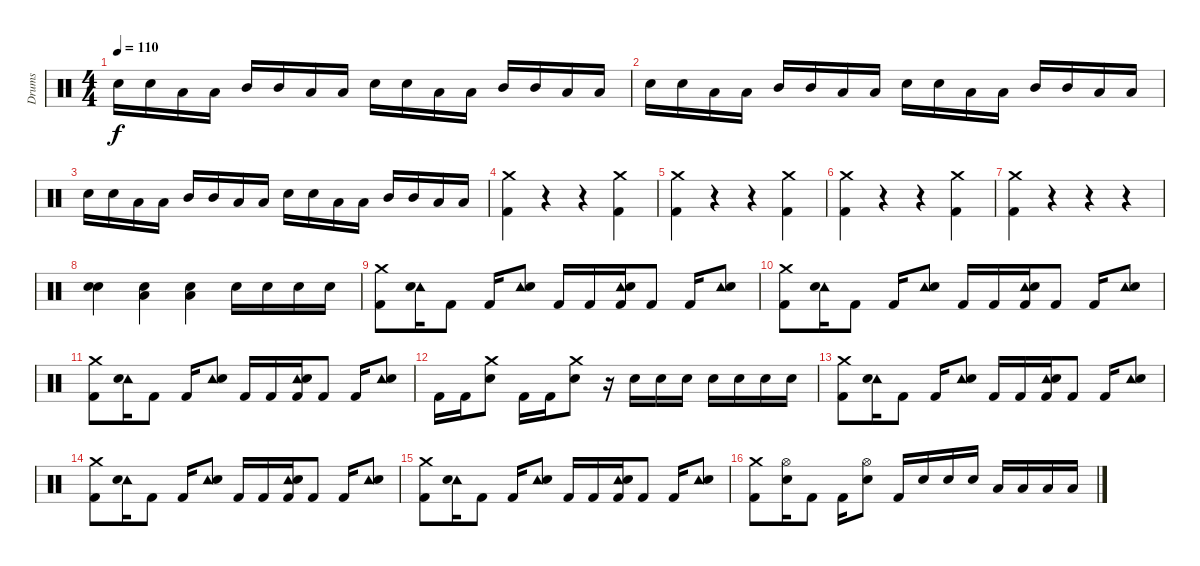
\track ("Drums" "Drums") {instrument percussion}
\staff {score}
\articulation defaults
\ts (4 4)
\tempo 110
\clef neutral
\ks c "Electric Snare (hit)".16{dy f} "Electric Snare (hit)".16 "Low Tom (hit)".16 "Low Tom (hit)".16 "Mid Tom (hit)".16 "Mid Tom (hit)".16 "Low Tom (hit)".16 "Low Tom (hit)".16 "Electric Snare (hit)".16 "Electric Snare (hit)".16 "Low Tom (hit)".16 "Low Tom (hit)".16 "Mid Tom (hit)".16 "Mid Tom (hit)".16 "Low Tom (hit)".16 "Low Tom (hit)".16
|
"Electric Snare (hit)".16 "Electric Snare (hit)".16 "Low Tom (hit)".16 "Low Tom (hit)".16 "Mid Tom (hit)".16 "Mid Tom (hit)".16 "Low Tom (hit)".16 "Low Tom (hit)".16 "Electric Snare (hit)".16 "Electric Snare (hit)".16 "Low Tom (hit)".16 "Low Tom (hit)".16 "Mid Tom (hit)".16 "Mid Tom (hit)".16 "Low Tom (hit)".16 "Low Tom (hit)".16 |
"Electric Snare (hit)".16 "Electric Snare (hit)".16 "Low Tom (hit)".16 "Low Tom (hit)".16 "Mid Tom (hit)".16 "Mid Tom (hit)".16 "Low Tom (hit)".16 "Low Tom (hit)".16 "Electric Snare (hit)".16 "Electric Snare (hit)".16 "Low Tom (hit)".16 "Low Tom (hit)".16 "Mid Tom (hit)".16 "Mid Tom (hit)".16 "Low Tom (hit)".16 "Low Tom (hit)".16 |
("Crash medium (hit)" "Kick (hit) 2").4 r.4 r.4 ("Crash medium (hit)" "Kick (hit) 2").4 |
("Crash medium (hit)" "Kick (hit) 2").4 r.4 r.4 ("Crash medium (hit)" "Kick (hit) 2").4 |
("Crash medium (hit)" "Kick (hit) 2").4 r.4 r.4 ("Crash medium (hit)" "Kick (hit) 2").4 |
("Crash medium (hit)" "Kick (hit) 2").4 r.4 r.4 r.4 |
("Electric Snare (hit)" "Snare (hit) 2").4{volume 16} ("Snare (hit) 2" "Low Floor Tom (hit)").4 ("Snare (hit) 2" "Low Floor Tom (hit)").4 "Snare (hit) 2".16 "Snare (hit) 2".16 "Snare (hit) 2".16 "Snare (hit) 2".16 |
("Crash medium (hit)" "Kick (hit) 2").8 ("Tambourine (hit)" "Electric Snare (hit)").16 "Kick (hit) 2".8 "Kick (hit) 2".16 ("Tambourine (hit)" "Electric Snare (hit)").8 "Kick (hit) 2".16 "Kick (hit) 2".16 ("Tambourine (hit)" "Electric Snare (hit)" "Kick (hit) 2").16 "Kick (hit) 2".8 "Kick (hit) 2".16 ("Tambourine (hit)" "Electric Snare (hit)").8 |
("Crash medium (hit)" "Kick (hit) 2").8 ("Tambourine (hit)" "Electric Snare (hit)").16 "Kick (hit) 2".8 "Kick (hit) 2".16 ("Tambourine (hit)" "Electric Snare (hit)").8 "Kick (hit) 2".16 "Kick (hit) 2".16 ("Tambourine (hit)" "Electric Snare (hit)" "Kick (hit) 2").16 "Kick (hit) 2".8 "Kick (hit) 2".16 ("Tambourine (hit)" "Electric Snare (hit)").8 |
("Crash medium (hit)" "Kick (hit) 2").8 ("Tambourine (hit)" "Electric Snare (hit)").16 "Kick (hit) 2".8 "Kick (hit) 2".16 ("Tambourine (hit)" "Electric Snare (hit)").8 "Kick (hit) 2".16 "Kick (hit) 2".16 ("Tambourine (hit)" "Electric Snare (hit)" "Kick (hit) 2").16 "Kick (hit) 2".8 "Kick (hit) 2".16 ("Tambourine (hit)" "Electric Snare (hit)").8 |
"Kick (hit) 2".16 "Kick (hit) 2".16 ("Crash medium (hit)" "Electric Snare (hit)").8 "Kick (hit) 2".16 "Kick (hit) 2".16 ("Crash medium (hit)" "Electric Snare (hit)").8 r.16 "Electric Snare (hit)".16 "Electric Snare (hit)".16 "Electric Snare (hit)".16 "Electric Snare (hit)".16 "Electric Snare (hit)".16 "Electric Snare (hit)".16 "Electric Snare (hit)".16 |
("Crash medium (hit)" "Kick (hit) 2").8 ("Tambourine (hit)" "Electric Snare (hit)").16 "Kick (hit) 2".8 "Kick (hit) 2".16 ("Tambourine (hit)" "Electric Snare (hit)").8 "Kick (hit) 2".16 "Kick (hit) 2".16 ("Tambourine (hit)" "Electric Snare (hit)" "Kick (hit) 2").16 "Kick (hit) 2".8 "Kick (hit) 2".16 ("Tambourine (hit)" "Electric Snare (hit)").8 |
("Crash medium (hit)" "Kick (hit) 2").8 ("Tambourine (hit)" "Electric Snare (hit)").16 "Kick (hit) 2".8 "Kick (hit) 2".16 ("Tambourine (hit)" "Electric Snare (hit)").8 "Kick (hit) 2".16 "Kick (hit) 2".16 ("Tambourine (hit)" "Electric Snare (hit)" "Kick (hit) 2").16 "Kick (hit) 2".8 "Kick (hit) 2".16 ("Tambourine (hit)" "Electric Snare (hit)").8 |
("Crash medium (hit)" "Kick (hit) 2").8 ("Tambourine (hit)" "Electric Snare (hit)").16 "Kick (hit) 2".8 "Kick (hit) 2".16 ("Tambourine (hit)" "Electric Snare (hit)").8 "Kick (hit) 2".16 "Kick (hit) 2".16 ("Tambourine (hit)" "Electric Snare (hit)" "Kick (hit) 2").16 "Kick (hit) 2".8 "Kick (hit) 2".16 ("Tambourine (hit)" "Electric Snare (hit)").8 |
("Crash medium (hit)" "Kick (hit) 2").8 ("Hi-Hat (open)" "Electric Snare (hit)").16 "Kick (hit) 2".8 "Kick (hit) 2".16 ("Hi-Hat (open)" "Electric Snare (hit)").8 "Kick (hit) 2".16 "Electric Snare (hit)".16 "Electric Snare (hit)".16 "Electric Snare (hit)".16 "Low Tom (hit)".16 "Low Tom (hit)".16 "Low Tom (hit)".16 "Low Floor Tom (hit)".16
